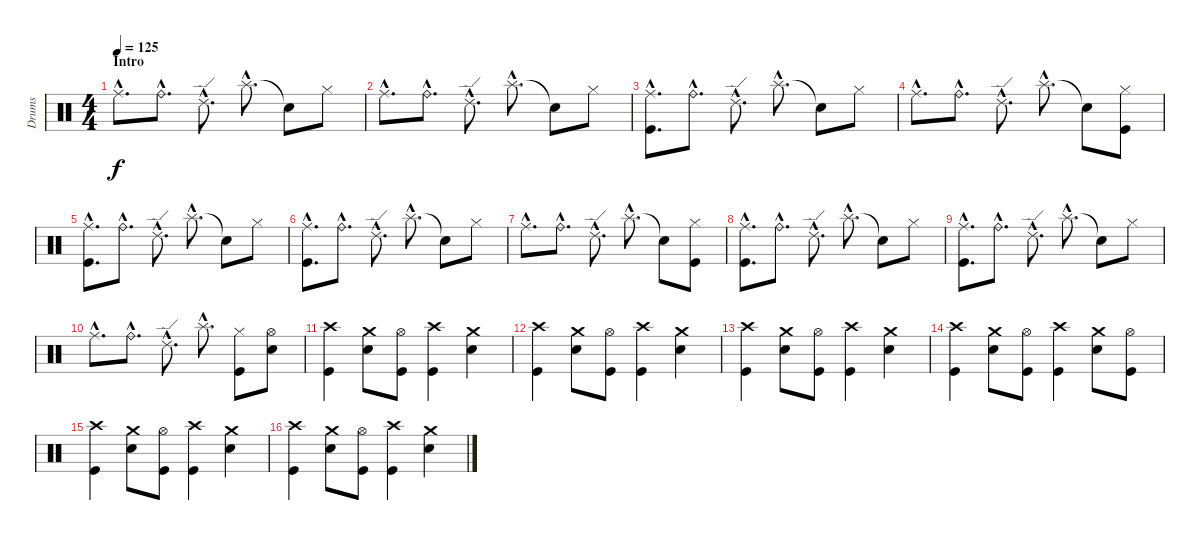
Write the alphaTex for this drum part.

\track ("Drums" "Drums") {instrument percussion}
\staff {score}
\articulation defaults
\ts (4 4)
\section ("" "Intro")
\tempo 125
\clef neutral
\ks c "Ride (middle)"{hac}.8{d dy f} "Ride (bell)"{hac}.8{d} "Ride (edge) 2"{hac}.8{d} "Splash (hit)"{hac}.8{d} "Snare (hit)"{t}.8 "Hi-Hat (closed)".8
|
"Ride (middle)"{hac}.8{d} "Ride (bell)"{hac}.8{d} "Ride (edge) 2"{hac}.8{d} "Splash (hit)"{hac}.8{d} "Snare (hit)"{t}.8 "Hi-Hat (closed)".8 |
("Ride (middle)"{hac} "Kick (hit)"{hac}).8{d} "Ride (bell)"{hac}.8{d} "Ride (edge) 2"{hac}.8{d} "Splash (hit)"{hac}.8{d} "Snare (hit)"{t}.8 "Hi-Hat (closed)".8 |
"Ride (middle)"{hac}.8{d} "Ride (bell)"{hac}.8{d} "Ride (edge) 2"{hac}.8{d} "Splash (hit)"{hac}.8{d} "Snare (hit)"{t}.8 ("Hi-Hat (closed)" "Kick (hit)").8 |
("Ride (middle)"{hac} "Kick (hit)"{hac}).8{d} "Ride (bell)"{hac}.8{d} "Ride (edge) 2"{hac}.8{d} "Splash (hit)"{hac}.8{d} "Snare (hit)"{t}.8 "Hi-Hat (closed)".8 |
("Ride (middle)"{hac} "Kick (hit)"{hac}).8{d} "Ride (bell)"{hac}.8{d} "Ride (edge) 2"{hac}.8{d} "Splash (hit)"{hac}.8{d} "Snare (hit)"{t}.8 "Hi-Hat (closed)".8 |
"Ride (middle)"{hac}.8{d} "Ride (bell)"{hac}.8{d} "Ride (edge) 2"{hac}.8{d} "Splash (hit)"{hac}.8{d} "Snare (hit)"{t}.8 ("Hi-Hat (closed)" "Kick (hit)").8 |
("Ride (middle)"{hac} "Kick (hit)"{hac}).8{d} "Ride (bell)"{hac}.8{d} "Ride (edge) 2"{hac}.8{d} "Splash (hit)"{hac}.8{d} "Snare (hit)"{t}.8 "Hi-Hat (closed)".8 |
("Ride (middle)"{hac} "Kick (hit)"{hac}).8{d} "Ride (bell)"{hac}.8{d} "Ride (edge) 2"{hac}.8{d} "Splash (hit)"{hac}.8{d} "Snare (hit)"{t}.8 "Hi-Hat (closed)".8 |
"Ride (middle)"{hac}.8{d} "Ride (bell)"{hac}.8{d} "Ride (edge) 2"{hac}.8{d} "Splash (hit)"{hac}.8{d} ("Hi-Hat (closed)" "Kick (hit)").8 ("Hi-Hat (open)" "Electric Snare (hit)").8 |
("Crash high (hit)" "Kick (hit)").4 ("Crash medium (hit)" "Electric Snare (hit)").8 ("Hi-Hat (open)" "Kick (hit)").8 ("Crash high (hit)" "Kick (hit)").4 ("Crash medium (hit)" "Electric Snare (hit)").4 |
("Crash high (hit)" "Kick (hit)").4 ("Crash medium (hit)" "Electric Snare (hit)").8 ("Hi-Hat (open)" "Kick (hit)").8 ("Crash high (hit)" "Kick (hit)").4 ("Crash medium (hit)" "Electric Snare (hit)").4 |
("Crash high (hit)" "Kick (hit)").4 ("Crash medium (hit)" "Electric Snare (hit)").8 ("Hi-Hat (open)" "Kick (hit)").8 ("Crash high (hit)" "Kick (hit)").4 ("Crash medium (hit)" "Electric Snare (hit)").4 |
("Crash high (hit)" "Kick (hit)").4 ("Crash medium (hit)" "Electric Snare (hit)").8 ("Hi-Hat (open)" "Kick (hit)").8 ("Crash high (hit)" "Kick (hit)").4 ("Crash medium (hit)" "Electric Snare (hit)").8 ("Hi-Hat (open)" "Kick (hit)").8 |
("Crash high (hit)" "Kick (hit)").4 ("Crash medium (hit)" "Electric Snare (hit)").8 ("Hi-Hat (open)" "Kick (hit)").8 ("Crash high (hit)" "Kick (hit)").4 ("Crash medium (hit)" "Electric Snare (hit)").4 |
("Crash high (hit)" "Kick (hit)").4 ("Crash medium (hit)" "Electric Snare (hit)").8 ("Hi-Hat (open)" "Kick (hit)").8 ("Crash high (hit)" "Kick (hit)").4 ("Crash medium (hit)" "Electric Snare (hit)").4
